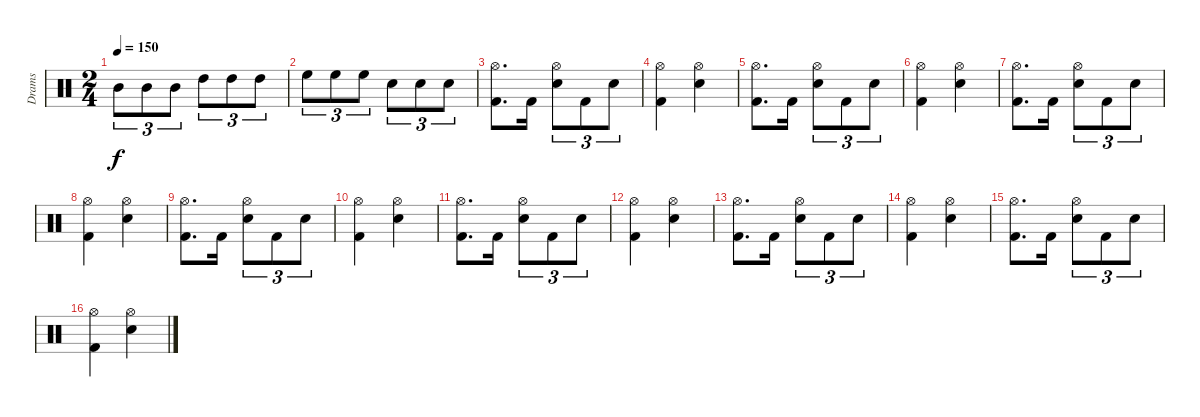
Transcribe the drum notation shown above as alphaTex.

\track ("Drams" "Drams") {instrument percussion}
\staff {score}
\articulation defaults
\ts (2 4)
\tempo 150
\clef neutral
\ks aminor "Mid Tom (hit)".8{tu (3 2) dy f} "Mid Tom (hit)".8{tu (3 2)} "Mid Tom (hit)".8{tu (3 2)} "High Tom (hit)".8{tu (3 2)} "High Tom (hit)".8{tu (3 2)} "High Tom (hit)".8{tu (3 2)}
|
"High Floor Tom (hit)".8{tu (3 2)} "High Floor Tom (hit)".8{tu (3 2)} "High Floor Tom (hit)".8{tu (3 2)} "Electric Snare (hit)".8{tu (3 2)} "Electric Snare (hit)".8{tu (3 2)} "Electric Snare (hit)".8{tu (3 2)} |
("Kick (hit) 2" "Hi-Hat (open)").8{d} "Kick (hit) 2".16 ("Electric Snare (hit)" "Hi-Hat (open)").8{tu (3 2)} "Kick (hit) 2".8{tu (3 2)} "Electric Snare (hit)".8{tu (3 2)} |
("Hi-Hat (open)" "Kick (hit) 2").4 ("Hi-Hat (open)" "Electric Snare (hit)").4 |
("Kick (hit) 2" "Hi-Hat (open)").8{d} "Kick (hit) 2".16 ("Electric Snare (hit)" "Hi-Hat (open)").8{tu (3 2)} "Kick (hit) 2".8{tu (3 2)} "Electric Snare (hit)".8{tu (3 2)} |
("Hi-Hat (open)" "Kick (hit) 2").4 ("Hi-Hat (open)" "Electric Snare (hit)").4 |
("Kick (hit) 2" "Hi-Hat (open)").8{d} "Kick (hit) 2".16 ("Electric Snare (hit)" "Hi-Hat (open)").8{tu (3 2)} "Kick (hit) 2".8{tu (3 2)} "Electric Snare (hit)".8{tu (3 2)} |
("Hi-Hat (open)" "Kick (hit) 2").4 ("Hi-Hat (open)" "Electric Snare (hit)").4 |
("Kick (hit) 2" "Hi-Hat (open)").8{d} "Kick (hit) 2".16 ("Electric Snare (hit)" "Hi-Hat (open)").8{tu (3 2)} "Kick (hit) 2".8{tu (3 2)} "Electric Snare (hit)".8{tu (3 2)} |
("Hi-Hat (open)" "Kick (hit) 2").4 ("Hi-Hat (open)" "Electric Snare (hit)").4 |
("Kick (hit) 2" "Hi-Hat (open)").8{d} "Kick (hit) 2".16 ("Electric Snare (hit)" "Hi-Hat (open)").8{tu (3 2)} "Kick (hit) 2".8{tu (3 2)} "Electric Snare (hit)".8{tu (3 2)} |
("Hi-Hat (open)" "Kick (hit) 2").4 ("Hi-Hat (open)" "Electric Snare (hit)").4 |
("Kick (hit) 2" "Hi-Hat (open)").8{d} "Kick (hit) 2".16 ("Electric Snare (hit)" "Hi-Hat (open)").8{tu (3 2)} "Kick (hit) 2".8{tu (3 2)} "Electric Snare (hit)".8{tu (3 2)} |
("Hi-Hat (open)" "Kick (hit) 2").4 ("Hi-Hat (open)" "Electric Snare (hit)").4 |
("Kick (hit) 2" "Hi-Hat (open)").8{d} "Kick (hit) 2".16 ("Electric Snare (hit)" "Hi-Hat (open)").8{tu (3 2)} "Kick (hit) 2".8{tu (3 2)} "Electric Snare (hit)".8{tu (3 2)} |
("Hi-Hat (open)" "Kick (hit) 2").4 ("Hi-Hat (open)" "Electric Snare (hit)").4
